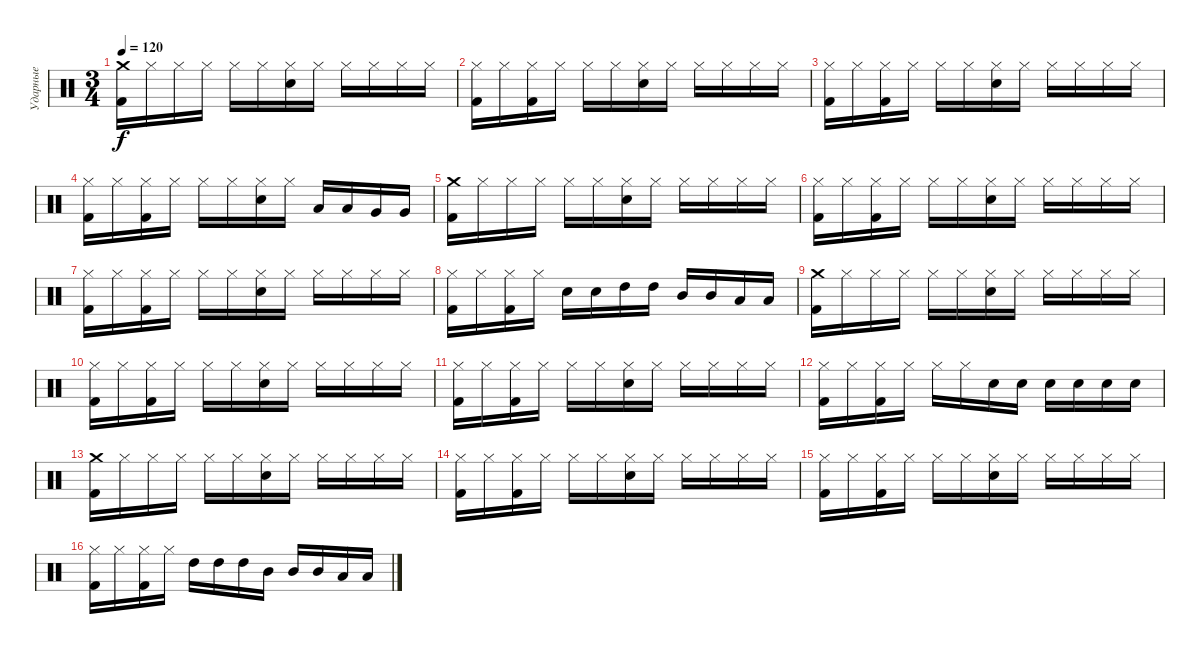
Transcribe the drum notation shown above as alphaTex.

\track ("Ударные" "Ударные") {instrument percussion}
\staff {score}
\articulation defaults
\ts (3 4)
\tempo 120
\clef neutral
\ks c
("Crash medium (hit)" "Kick (hit) 2").16{dy f} "Hi-Hat (closed)".16 "Hi-Hat (closed)".16 "Hi-Hat (closed)".16 "Hi-Hat (closed)".16 "Hi-Hat (closed)".16 ("Hi-Hat (closed)" "Electric Snare (hit)").16 "Hi-Hat (closed)".16 "Hi-Hat (closed)".16 "Hi-Hat (closed)".16 "Hi-Hat (closed)".16 "Hi-Hat (closed)".16 |
("Hi-Hat (closed)" "Kick (hit) 2").16 "Hi-Hat (closed)".16 ("Hi-Hat (closed)" "Kick (hit) 2").16 "Hi-Hat (closed)".16 "Hi-Hat (closed)".16 "Hi-Hat (closed)".16 ("Hi-Hat (closed)" "Electric Snare (hit)").16 "Hi-Hat (closed)".16 "Hi-Hat (closed)".16 "Hi-Hat (closed)".16 "Hi-Hat (closed)".16 "Hi-Hat (closed)".16 |
("Hi-Hat (closed)" "Kick (hit) 2").16 "Hi-Hat (closed)".16 ("Hi-Hat (closed)" "Kick (hit) 2").16 "Hi-Hat (closed)".16 "Hi-Hat (closed)".16 "Hi-Hat (closed)".16 ("Hi-Hat (closed)" "Electric Snare (hit)").16 "Hi-Hat (closed)".16 "Hi-Hat (closed)".16 "Hi-Hat (closed)".16 "Hi-Hat (closed)".16 "Hi-Hat (closed)".16 |
("Hi-Hat (closed)" "Kick (hit) 2").16 "Hi-Hat (closed)".16 ("Hi-Hat (closed)" "Kick (hit) 2").16 "Hi-Hat (closed)".16 "Hi-Hat (closed)".16 "Hi-Hat (closed)".16 ("Hi-Hat (closed)" "Electric Snare (hit)").16 "Hi-Hat (closed)".16 "Low Tom (hit)".16 "Low Tom (hit)".16 "Very Low Tom (hit)".16 "Very Low Tom (hit)".16 |
("Crash medium (hit)" "Kick (hit) 2").16 "Hi-Hat (closed)".16 "Hi-Hat (closed)".16 "Hi-Hat (closed)".16 "Hi-Hat (closed)".16 "Hi-Hat (closed)".16 ("Hi-Hat (closed)" "Electric Snare (hit)").16 "Hi-Hat (closed)".16 "Hi-Hat (closed)".16 "Hi-Hat (closed)".16 "Hi-Hat (closed)".16 "Hi-Hat (closed)".16 |
("Hi-Hat (closed)" "Kick (hit) 2").16 "Hi-Hat (closed)".16 ("Hi-Hat (closed)" "Kick (hit) 2").16 "Hi-Hat (closed)".16 "Hi-Hat (closed)".16 "Hi-Hat (closed)".16 ("Hi-Hat (closed)" "Electric Snare (hit)").16 "Hi-Hat (closed)".16 "Hi-Hat (closed)".16 "Hi-Hat (closed)".16 "Hi-Hat (closed)".16 "Hi-Hat (closed)".16 |
("Hi-Hat (closed)" "Kick (hit) 2").16 "Hi-Hat (closed)".16 ("Hi-Hat (closed)" "Kick (hit) 2").16 "Hi-Hat (closed)".16 "Hi-Hat (closed)".16 "Hi-Hat (closed)".16 ("Hi-Hat (closed)" "Electric Snare (hit)").16 "Hi-Hat (closed)".16 "Hi-Hat (closed)".16 "Hi-Hat (closed)".16 "Hi-Hat (closed)".16 "Hi-Hat (closed)".16 |
("Hi-Hat (closed)" "Kick (hit) 2").16 "Hi-Hat (closed)".16 ("Hi-Hat (closed)" "Kick (hit) 2").16 "Hi-Hat (closed)".16 "Electric Snare (hit)".16 "Electric Snare (hit)".16 "High Tom (hit)".16 "High Tom (hit)".16 "Mid Tom (hit)".16 "Mid Tom (hit)".16 "Low Tom (hit)".16 "Low Tom (hit)".16 |
("Crash medium (hit)" "Kick (hit) 2").16 "Hi-Hat (closed)".16 "Hi-Hat (closed)".16 "Hi-Hat (closed)".16 "Hi-Hat (closed)".16 "Hi-Hat (closed)".16 ("Hi-Hat (closed)" "Electric Snare (hit)").16 "Hi-Hat (closed)".16 "Hi-Hat (closed)".16 "Hi-Hat (closed)".16 "Hi-Hat (closed)".16 "Hi-Hat (closed)".16 |
("Hi-Hat (closed)" "Kick (hit) 2").16 "Hi-Hat (closed)".16 ("Hi-Hat (closed)" "Kick (hit) 2").16 "Hi-Hat (closed)".16 "Hi-Hat (closed)".16 "Hi-Hat (closed)".16 ("Hi-Hat (closed)" "Electric Snare (hit)").16 "Hi-Hat (closed)".16 "Hi-Hat (closed)".16 "Hi-Hat (closed)".16 "Hi-Hat (closed)".16 "Hi-Hat (closed)".16 |
("Hi-Hat (closed)" "Kick (hit) 2").16 "Hi-Hat (closed)".16 ("Hi-Hat (closed)" "Kick (hit) 2").16 "Hi-Hat (closed)".16 "Hi-Hat (closed)".16 "Hi-Hat (closed)".16 ("Hi-Hat (closed)" "Electric Snare (hit)").16 "Hi-Hat (closed)".16 "Hi-Hat (closed)".16 "Hi-Hat (closed)".16 "Hi-Hat (closed)".16 "Hi-Hat (closed)".16 |
("Hi-Hat (closed)" "Kick (hit) 2").16 "Hi-Hat (closed)".16 ("Hi-Hat (closed)" "Kick (hit) 2").16 "Hi-Hat (closed)".16 "Hi-Hat (closed)".16 "Hi-Hat (closed)".16 "Electric Snare (hit)".16 "Electric Snare (hit)".16 "Electric Snare (hit)".16 "Electric Snare (hit)".16 "Electric Snare (hit)".16 "Electric Snare (hit)".16 |
("Crash medium (hit)" "Kick (hit) 2").16 "Hi-Hat (closed)".16 "Hi-Hat (closed)".16 "Hi-Hat (closed)".16 "Hi-Hat (closed)".16 "Hi-Hat (closed)".16 ("Hi-Hat (closed)" "Electric Snare (hit)").16 "Hi-Hat (closed)".16 "Hi-Hat (closed)".16 "Hi-Hat (closed)".16 "Hi-Hat (closed)".16 "Hi-Hat (closed)".16 |
("Hi-Hat (closed)" "Kick (hit) 2").16 "Hi-Hat (closed)".16 ("Hi-Hat (closed)" "Kick (hit) 2").16 "Hi-Hat (closed)".16 "Hi-Hat (closed)".16 "Hi-Hat (closed)".16 ("Hi-Hat (closed)" "Electric Snare (hit)").16 "Hi-Hat (closed)".16 "Hi-Hat (closed)".16 "Hi-Hat (closed)".16 "Hi-Hat (closed)".16 "Hi-Hat (closed)".16 |
("Hi-Hat (closed)" "Kick (hit) 2").16 "Hi-Hat (closed)".16 ("Hi-Hat (closed)" "Kick (hit) 2").16 "Hi-Hat (closed)".16 "Hi-Hat (closed)".16 "Hi-Hat (closed)".16 ("Hi-Hat (closed)" "Electric Snare (hit)").16 "Hi-Hat (closed)".16 "Hi-Hat (closed)".16 "Hi-Hat (closed)".16 "Hi-Hat (closed)".16 "Hi-Hat (closed)".16 |
("Hi-Hat (closed)" "Kick (hit) 2").16 "Hi-Hat (closed)".16 ("Hi-Hat (closed)" "Kick (hit) 2").16 "Hi-Hat (closed)".16 "High Tom (hit)".16 "High Tom (hit)".16 "High Tom (hit)".16 "Mid Tom (hit)".16 "Mid Tom (hit)".16 "Mid Tom (hit)".16 "Low Tom (hit)".16 "Low Tom (hit)".16
